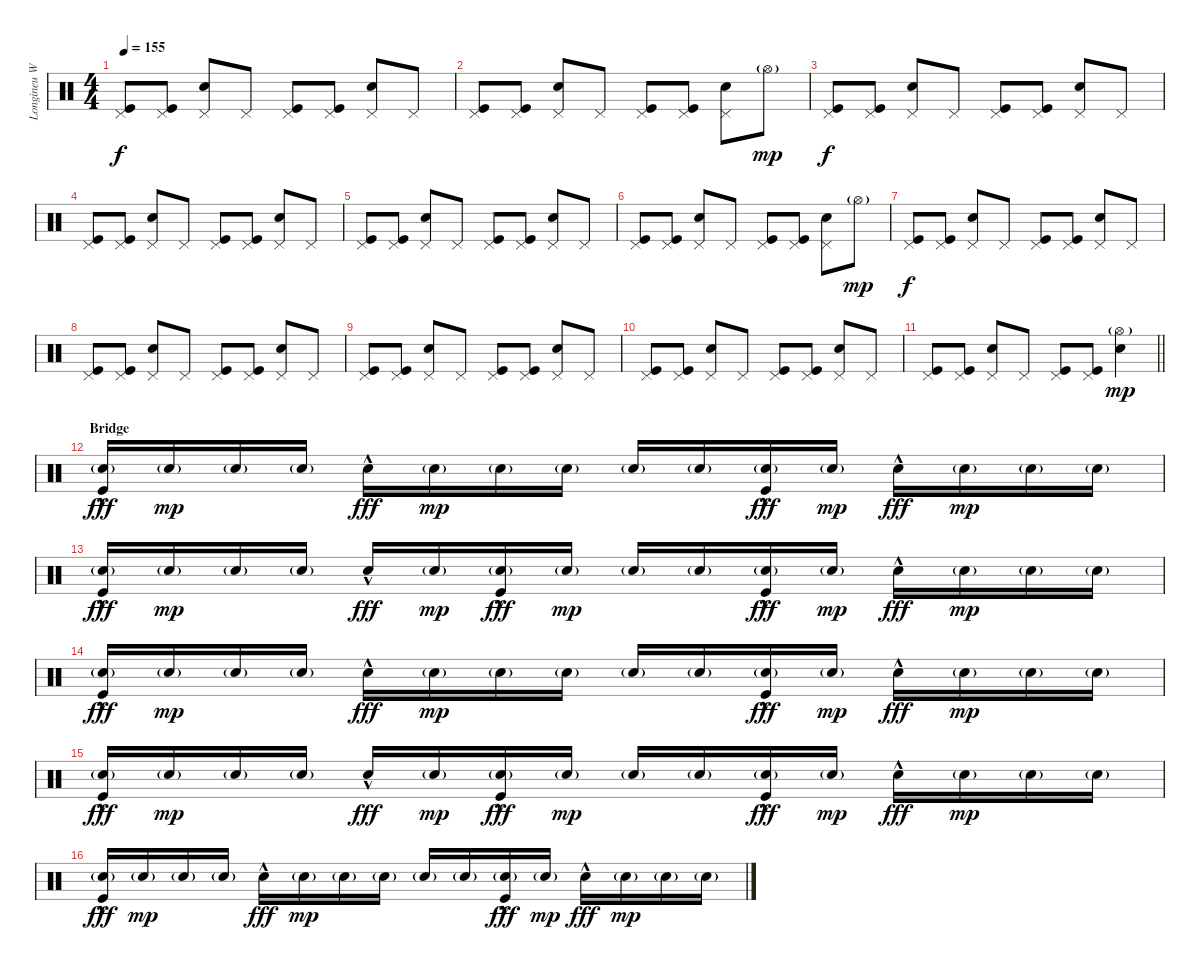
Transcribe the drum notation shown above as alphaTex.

\track ("Longineu W. Parsons III - Drums" "Longineu W") {instrument percussion}
\staff {score}
\articulation defaults
\ts (4 4)
\tempo 155
\clef neutral
\ks c
("Pedal Hi-Hat (hit)" "Kick (hit)").8{dy f} ("Pedal Hi-Hat (hit)" "Kick (hit)").8 ("Pedal Hi-Hat (hit)" "Snare (hit) 2").8 "Pedal Hi-Hat (hit)".8 ("Pedal Hi-Hat (hit)" "Kick (hit)").8 ("Pedal Hi-Hat (hit)" "Kick (hit)").8 ("Pedal Hi-Hat (hit)" "Snare (hit) 2").8 "Pedal Hi-Hat (hit)".8 |
("Pedal Hi-Hat (hit)" "Kick (hit)").8 ("Pedal Hi-Hat (hit)" "Kick (hit)").8 ("Pedal Hi-Hat (hit)" "Snare (hit) 2").8 "Pedal Hi-Hat (hit)".8 ("Pedal Hi-Hat (hit)" "Kick (hit)").8 ("Pedal Hi-Hat (hit)" "Kick (hit)").8 ("Pedal Hi-Hat (hit)" "Snare (hit) 2").8 "Hi-Hat (open)"{g}.8{dy mp} |
("Pedal Hi-Hat (hit)" "Kick (hit)").8{dy f} ("Pedal Hi-Hat (hit)" "Kick (hit)").8 ("Pedal Hi-Hat (hit)" "Snare (hit) 2").8 "Pedal Hi-Hat (hit)".8 ("Pedal Hi-Hat (hit)" "Kick (hit)").8 ("Pedal Hi-Hat (hit)" "Kick (hit)").8 ("Pedal Hi-Hat (hit)" "Snare (hit) 2").8 "Pedal Hi-Hat (hit)".8 |
("Pedal Hi-Hat (hit)" "Kick (hit)").8 ("Pedal Hi-Hat (hit)" "Kick (hit)").8 ("Pedal Hi-Hat (hit)" "Snare (hit) 2").8 "Pedal Hi-Hat (hit)".8 ("Pedal Hi-Hat (hit)" "Kick (hit)").8 ("Pedal Hi-Hat (hit)" "Kick (hit)").8 ("Pedal Hi-Hat (hit)" "Snare (hit) 2").8 "Pedal Hi-Hat (hit)".8 |
("Pedal Hi-Hat (hit)" "Kick (hit)").8 ("Pedal Hi-Hat (hit)" "Kick (hit)").8 ("Pedal Hi-Hat (hit)" "Snare (hit) 2").8 "Pedal Hi-Hat (hit)".8 ("Pedal Hi-Hat (hit)" "Kick (hit)").8 ("Pedal Hi-Hat (hit)" "Kick (hit)").8 ("Pedal Hi-Hat (hit)" "Snare (hit) 2").8 "Pedal Hi-Hat (hit)".8 |
("Pedal Hi-Hat (hit)" "Kick (hit)").8 ("Pedal Hi-Hat (hit)" "Kick (hit)").8 ("Pedal Hi-Hat (hit)" "Snare (hit) 2").8 "Pedal Hi-Hat (hit)".8 ("Pedal Hi-Hat (hit)" "Kick (hit)").8 ("Pedal Hi-Hat (hit)" "Kick (hit)").8 ("Pedal Hi-Hat (hit)" "Snare (hit) 2").8 "Hi-Hat (open)"{g}.8{dy mp} |
("Pedal Hi-Hat (hit)" "Kick (hit)").8{dy f} ("Pedal Hi-Hat (hit)" "Kick (hit)").8 ("Pedal Hi-Hat (hit)" "Snare (hit) 2").8 "Pedal Hi-Hat (hit)".8 ("Pedal Hi-Hat (hit)" "Kick (hit)").8 ("Pedal Hi-Hat (hit)" "Kick (hit)").8 ("Pedal Hi-Hat (hit)" "Snare (hit) 2").8 "Pedal Hi-Hat (hit)".8 |
("Pedal Hi-Hat (hit)" "Kick (hit)").8 ("Pedal Hi-Hat (hit)" "Kick (hit)").8 ("Pedal Hi-Hat (hit)" "Snare (hit) 2").8 "Pedal Hi-Hat (hit)".8 ("Pedal Hi-Hat (hit)" "Kick (hit)").8 ("Pedal Hi-Hat (hit)" "Kick (hit)").8 ("Pedal Hi-Hat (hit)" "Snare (hit) 2").8 "Pedal Hi-Hat (hit)".8 |
("Pedal Hi-Hat (hit)" "Kick (hit)").8 ("Pedal Hi-Hat (hit)" "Kick (hit)").8 ("Pedal Hi-Hat (hit)" "Snare (hit) 2").8 "Pedal Hi-Hat (hit)".8 ("Pedal Hi-Hat (hit)" "Kick (hit)").8 ("Pedal Hi-Hat (hit)" "Kick (hit)").8 ("Pedal Hi-Hat (hit)" "Snare (hit) 2").8 "Pedal Hi-Hat (hit)".8 |
("Pedal Hi-Hat (hit)" "Kick (hit)").8 ("Pedal Hi-Hat (hit)" "Kick (hit)").8 ("Pedal Hi-Hat (hit)" "Snare (hit) 2").8 "Pedal Hi-Hat (hit)".8 ("Pedal Hi-Hat (hit)" "Kick (hit)").8 ("Pedal Hi-Hat (hit)" "Kick (hit)").8 ("Pedal Hi-Hat (hit)" "Snare (hit) 2").8 "Pedal Hi-Hat (hit)".8 |
\barLineRight lightlight
("Pedal Hi-Hat (hit)" "Kick (hit)").8 ("Pedal Hi-Hat (hit)" "Kick (hit)").8 ("Pedal Hi-Hat (hit)" "Snare (hit) 2").8 "Pedal Hi-Hat (hit)".8 ("Pedal Hi-Hat (hit)" "Kick (hit)").8 ("Pedal Hi-Hat (hit)" "Kick (hit)").8 ("Hi-Hat (open)"{g} "Snare (hit) 2").4{dy mp} |
\section ("" "Bridge")
("Snare (hit) 2"{g} "Kick (hit)"{hac}).16{dy fff} "Snare (hit) 2"{g}.16{dy mp} "Snare (hit) 2"{g}.16 "Snare (hit) 2"{g}.16 "Snare (hit) 2"{hac}.16{dy fff} "Snare (hit) 2"{g}.16{dy mp} "Snare (hit) 2"{g}.16 "Snare (hit) 2"{g}.16 "Snare (hit) 2"{g}.16 "Snare (hit) 2"{g}.16 ("Snare (hit) 2"{g} "Kick (hit)"{hac}).16{dy fff} "Snare (hit) 2"{g}.16{dy mp} "Snare (hit) 2"{hac}.16{dy fff} "Snare (hit) 2"{g}.16{dy mp} "Snare (hit) 2"{g}.16 "Snare (hit) 2"{g}.16 |
("Snare (hit) 2"{g} "Kick (hit)"{hac}).16{dy fff} "Snare (hit) 2"{g}.16{dy mp} "Snare (hit) 2"{g}.16 "Snare (hit) 2"{g}.16 "Snare (hit) 2"{hac}.16{dy fff} "Snare (hit) 2"{g}.16{dy mp} ("Snare (hit) 2"{g} "Kick (hit)"{hac}).16{dy fff} "Snare (hit) 2"{g}.16{dy mp} "Snare (hit) 2"{g}.16 "Snare (hit) 2"{g}.16 ("Snare (hit) 2"{g} "Kick (hit)"{hac}).16{dy fff} "Snare (hit) 2"{g}.16{dy mp} "Snare (hit) 2"{hac}.16{dy fff} "Snare (hit) 2"{g}.16{dy mp} "Snare (hit) 2"{g}.16 "Snare (hit) 2"{g}.16 |
("Snare (hit) 2"{g} "Kick (hit)"{hac}).16{dy fff} "Snare (hit) 2"{g}.16{dy mp} "Snare (hit) 2"{g}.16 "Snare (hit) 2"{g}.16 "Snare (hit) 2"{hac}.16{dy fff} "Snare (hit) 2"{g}.16{dy mp} "Snare (hit) 2"{g}.16 "Snare (hit) 2"{g}.16 "Snare (hit) 2"{g}.16 "Snare (hit) 2"{g}.16 ("Snare (hit) 2"{g} "Kick (hit)"{hac}).16{dy fff} "Snare (hit) 2"{g}.16{dy mp} "Snare (hit) 2"{hac}.16{dy fff} "Snare (hit) 2"{g}.16{dy mp} "Snare (hit) 2"{g}.16 "Snare (hit) 2"{g}.16 |
("Snare (hit) 2"{g} "Kick (hit)"{hac}).16{dy fff} "Snare (hit) 2"{g}.16{dy mp} "Snare (hit) 2"{g}.16 "Snare (hit) 2"{g}.16 "Snare (hit) 2"{hac}.16{dy fff} "Snare (hit) 2"{g}.16{dy mp} ("Snare (hit) 2"{g} "Kick (hit)"{hac}).16{dy fff} "Snare (hit) 2"{g}.16{dy mp} "Snare (hit) 2"{g}.16 "Snare (hit) 2"{g}.16 ("Snare (hit) 2"{g} "Kick (hit)"{hac}).16{dy fff} "Snare (hit) 2"{g}.16{dy mp} "Snare (hit) 2"{hac}.16{dy fff} "Snare (hit) 2"{g}.16{dy mp} "Snare (hit) 2"{g}.16 "Snare (hit) 2"{g}.16 |
("Snare (hit) 2"{g} "Kick (hit)"{hac}).16{dy fff} "Snare (hit) 2"{g}.16{dy mp} "Snare (hit) 2"{g}.16 "Snare (hit) 2"{g}.16 "Snare (hit) 2"{hac}.16{dy fff} "Snare (hit) 2"{g}.16{dy mp} "Snare (hit) 2"{g}.16 "Snare (hit) 2"{g}.16 "Snare (hit) 2"{g}.16 "Snare (hit) 2"{g}.16 ("Snare (hit) 2"{g} "Kick (hit)"{hac}).16{dy fff} "Snare (hit) 2"{g}.16{dy mp} "Snare (hit) 2"{hac}.16{dy fff} "Snare (hit) 2"{g}.16{dy mp} "Snare (hit) 2"{g}.16 "Snare (hit) 2"{g}.16
